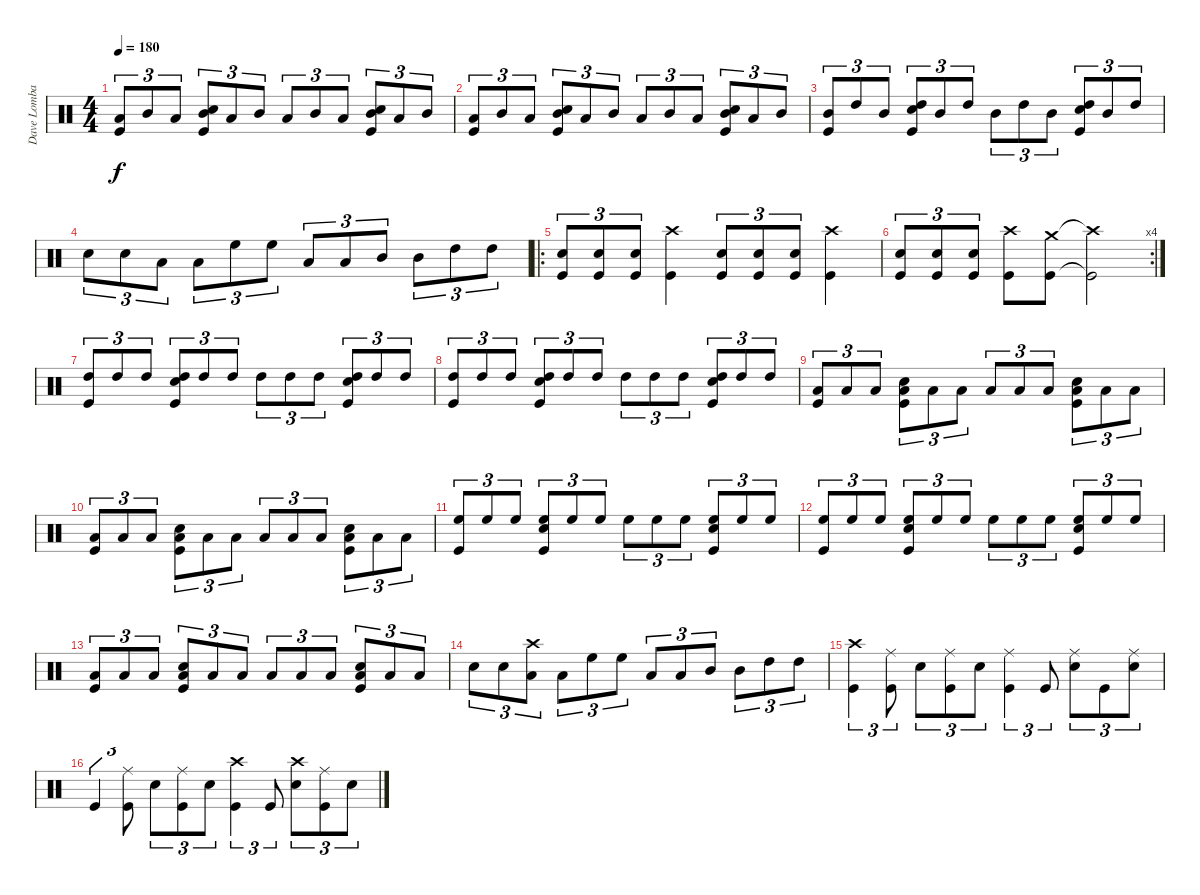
\track ("Dave Lombardo" "Dave Lomba") {instrument percussion}
\staff {score}
\articulation defaults
\ts (4 4)
\tempo 180
\clef neutral
\ks c
("Low Tom (hit)" "Kick (hit)").8{tu (3 2) dy f} "Mid Tom (hit)".8{tu (3 2)} "Low Tom (hit)".8{tu (3 2)} ("Kick (hit)" "Mid Tom (hit)" "Snare (hit) 2").8{tu (3 2)} "Low Tom (hit)".8{tu (3 2)} "Mid Tom (hit)".8{tu (3 2)} "Low Tom (hit)".8{tu (3 2)} "Mid Tom (hit)".8{tu (3 2)} "Low Tom (hit)".8{tu (3 2)} ("Kick (hit)" "Mid Tom (hit)" "Snare (hit) 2").8{tu (3 2)} "Low Tom (hit)".8{tu (3 2)} "Mid Tom (hit)".8{tu (3 2)} |
("Low Tom (hit)" "Kick (hit)").8{tu (3 2)} "Mid Tom (hit)".8{tu (3 2)} "Low Tom (hit)".8{tu (3 2)} ("Kick (hit)" "Mid Tom (hit)" "Snare (hit) 2").8{tu (3 2)} "Low Tom (hit)".8{tu (3 2)} "Mid Tom (hit)".8{tu (3 2)} "Low Tom (hit)".8{tu (3 2)} "Mid Tom (hit)".8{tu (3 2)} "Low Tom (hit)".8{tu (3 2)} ("Kick (hit)" "Mid Tom (hit)" "Snare (hit) 2").8{tu (3 2)} "Low Tom (hit)".8{tu (3 2)} "Mid Tom (hit)".8{tu (3 2)} |
("Mid Tom (hit)" "Kick (hit)").8{tu (3 2)} "High Tom (hit)".8{tu (3 2)} "Mid Tom (hit)".8{tu (3 2)} ("Kick (hit)" "High Tom (hit)" "Snare (hit) 2").8{tu (3 2)} "Mid Tom (hit)".8{tu (3 2)} "High Tom (hit)".8{tu (3 2)} "Mid Tom (hit)".8{tu (3 2)} "High Tom (hit)".8{tu (3 2)} "Mid Tom (hit)".8{tu (3 2)} ("Kick (hit)" "High Tom (hit)" "Snare (hit) 2").8{tu (3 2)} "Mid Tom (hit)".8{tu (3 2)} "High Tom (hit)".8{tu (3 2)} |
"Snare (hit) 2".8{tu (3 2)} "Snare (hit) 2".8{tu (3 2)} "Low Floor Tom (hit)".8{tu (3 2)} "Low Floor Tom (hit)".8{tu (3 2)} "High Floor Tom (hit)".8{tu (3 2)} "High Floor Tom (hit)".8{tu (3 2)} "Low Tom (hit)".8{tu (3 2)} "Low Tom (hit)".8{tu (3 2)} "Mid Tom (hit)".8{tu (3 2)} "Mid Tom (hit)".8{tu (3 2)} "High Tom (hit)".8{tu (3 2)} "High Tom (hit)".8{tu (3 2)} |
\ro
("Kick (hit)" "Snare (hit) 2").8{tu (3 2)} ("Kick (hit)" "Snare (hit) 2").8{tu (3 2)} ("Kick (hit)" "Snare (hit) 2").8{tu (3 2)} ("Kick (hit)" "Crash high (hit)").4 ("Kick (hit)" "Snare (hit) 2").8{tu (3 2)} ("Kick (hit)" "Snare (hit) 2").8{tu (3 2)} ("Kick (hit)" "Snare (hit) 2").8{tu (3 2)} ("Kick (hit)" "Crash high (hit)").4 |
\rc 4
("Snare (hit) 2" "Kick (hit)").8{tu (3 2)} ("Snare (hit) 2" "Kick (hit)").8{tu (3 2)} ("Snare (hit) 2" "Kick (hit)").8{tu (3 2)} ("Crash high (hit)" "Kick (hit)").8 ("Crash medium (hit)" "Kick (hit)").8 ("Crash high (hit)"{t} "Kick (hit)"{t}).2 |
("High Tom (hit)" "Kick (hit)").8{tu (3 2)} "High Tom (hit)".8{tu (3 2)} "High Tom (hit)".8{tu (3 2)} ("Kick (hit)" "High Tom (hit)" "Snare (hit) 2").8{tu (3 2)} "High Tom (hit)".8{tu (3 2)} "High Tom (hit)".8{tu (3 2)} "High Tom (hit)".8{tu (3 2)} "High Tom (hit)".8{tu (3 2)} "High Tom (hit)".8{tu (3 2)} ("Kick (hit)" "High Tom (hit)" "Snare (hit) 2").8{tu (3 2)} "High Tom (hit)".8{tu (3 2)} "High Tom (hit)".8{tu (3 2)} |
("High Tom (hit)" "Kick (hit)").8{tu (3 2)} "High Tom (hit)".8{tu (3 2)} "High Tom (hit)".8{tu (3 2)} ("Kick (hit)" "High Tom (hit)" "Snare (hit) 2").8{tu (3 2)} "High Tom (hit)".8{tu (3 2)} "High Tom (hit)".8{tu (3 2)} "High Tom (hit)".8{tu (3 2)} "High Tom (hit)".8{tu (3 2)} "High Tom (hit)".8{tu (3 2)} ("Kick (hit)" "High Tom (hit)" "Snare (hit) 2").8{tu (3 2)} "High Tom (hit)".8{tu (3 2)} "High Tom (hit)".8{tu (3 2)} |
("Low Tom (hit)" "Kick (hit)").8{tu (3 2)} "Low Tom (hit)".8{tu (3 2)} "Low Tom (hit)".8{tu (3 2)} ("Kick (hit)" "Low Tom (hit)" "Snare (hit) 2").8{tu (3 2)} "Low Tom (hit)".8{tu (3 2)} "Low Tom (hit)".8{tu (3 2)} "Low Tom (hit)".8{tu (3 2)} "Low Tom (hit)".8{tu (3 2)} "Low Tom (hit)".8{tu (3 2)} ("Kick (hit)" "Low Tom (hit)" "Snare (hit) 2").8{tu (3 2)} "Low Tom (hit)".8{tu (3 2)} "Low Tom (hit)".8{tu (3 2)} |
("Low Tom (hit)" "Kick (hit)").8{tu (3 2)} "Low Tom (hit)".8{tu (3 2)} "Low Tom (hit)".8{tu (3 2)} ("Kick (hit)" "Low Tom (hit)" "Snare (hit) 2").8{tu (3 2)} "Low Tom (hit)".8{tu (3 2)} "Low Tom (hit)".8{tu (3 2)} "Low Tom (hit)".8{tu (3 2)} "Low Tom (hit)".8{tu (3 2)} "Low Tom (hit)".8{tu (3 2)} ("Kick (hit)" "Low Tom (hit)" "Snare (hit) 2").8{tu (3 2)} "Low Tom (hit)".8{tu (3 2)} "Low Tom (hit)".8{tu (3 2)} |
("High Floor Tom (hit)" "Kick (hit)").8{tu (3 2)} "High Floor Tom (hit)".8{tu (3 2)} "High Floor Tom (hit)".8{tu (3 2)} ("Kick (hit)" "High Floor Tom (hit)" "Snare (hit) 2").8{tu (3 2)} "High Floor Tom (hit)".8{tu (3 2)} "High Floor Tom (hit)".8{tu (3 2)} "High Floor Tom (hit)".8{tu (3 2)} "High Floor Tom (hit)".8{tu (3 2)} "High Floor Tom (hit)".8{tu (3 2)} ("Kick (hit)" "High Floor Tom (hit)" "Snare (hit) 2").8{tu (3 2)} "High Floor Tom (hit)".8{tu (3 2)} "High Floor Tom (hit)".8{tu (3 2)} |
("High Floor Tom (hit)" "Kick (hit)").8{tu (3 2)} "High Floor Tom (hit)".8{tu (3 2)} "High Floor Tom (hit)".8{tu (3 2)} ("Kick (hit)" "High Floor Tom (hit)" "Snare (hit) 2").8{tu (3 2)} "High Floor Tom (hit)".8{tu (3 2)} "High Floor Tom (hit)".8{tu (3 2)} "High Floor Tom (hit)".8{tu (3 2)} "High Floor Tom (hit)".8{tu (3 2)} "High Floor Tom (hit)".8{tu (3 2)} ("Kick (hit)" "High Floor Tom (hit)" "Snare (hit) 2").8{tu (3 2)} "High Floor Tom (hit)".8{tu (3 2)} "High Floor Tom (hit)".8{tu (3 2)} |
("Low Floor Tom (hit)" "Kick (hit)").8{tu (3 2)} "Low Floor Tom (hit)".8{tu (3 2)} "Low Floor Tom (hit)".8{tu (3 2)} ("Kick (hit)" "Low Floor Tom (hit)" "Snare (hit) 2").8{tu (3 2)} "Low Floor Tom (hit)".8{tu (3 2)} "Low Floor Tom (hit)".8{tu (3 2)} "Low Floor Tom (hit)".8{tu (3 2)} "Low Floor Tom (hit)".8{tu (3 2)} "Low Floor Tom (hit)".8{tu (3 2)} ("Kick (hit)" "Low Floor Tom (hit)" "Snare (hit) 2").8{tu (3 2)} "Low Floor Tom (hit)".8{tu (3 2)} "Low Floor Tom (hit)".8{tu (3 2)} |
"Snare (hit) 2".8{tu (3 2)} "Snare (hit) 2".8{tu (3 2)} ("Crash high (hit)" "Low Floor Tom (hit)").8{tu (3 2)} "Low Floor Tom (hit)".8{tu (3 2)} "High Floor Tom (hit)".8{tu (3 2)} "High Floor Tom (hit)".8{tu (3 2)} "Low Tom (hit)".8{tu (3 2)} "Low Tom (hit)".8{tu (3 2)} "Mid Tom (hit)".8{tu (3 2)} "Mid Tom (hit)".8{tu (3 2)} "High Tom (hit)".8{tu (3 2)} "High Tom (hit)".8{tu (3 2)} |
("Crash high (hit)" "Kick (hit)").4{tu (3 2)} ("Ride (middle)" "Kick (hit)").8{tu (3 2)} "Snare (hit) 2".8{tu (3 2)} ("Ride (middle)" "Kick (hit)").8{tu (3 2)} "Snare (hit) 2".8{tu (3 2)} ("Ride (middle)" "Kick (hit)").4{tu (3 2)} "Kick (hit)".8{tu (3 2)} ("Ride (middle)" "Snare (hit) 2").8{tu (3 2)} "Kick (hit)".8{tu (3 2)} ("Ride (middle)" "Snare (hit) 2").8{tu (3 2)} |
"Kick (hit)".4{tu (3 2)} ("Ride (middle)" "Kick (hit)").8{tu (3 2)} "Snare (hit) 2".8{tu (3 2)} ("Ride (middle)" "Kick (hit)").8{tu (3 2)} "Snare (hit) 2".8{tu (3 2)} ("Crash high (hit)" "Kick (hit)").4{tu (3 2)} "Kick (hit)".8{tu (3 2)} ("Crash high (hit)" "Snare (hit) 2").8{tu (3 2)} ("Ride (middle)" "Kick (hit)").8{tu (3 2)} "Snare (hit) 2".8{tu (3 2)}
